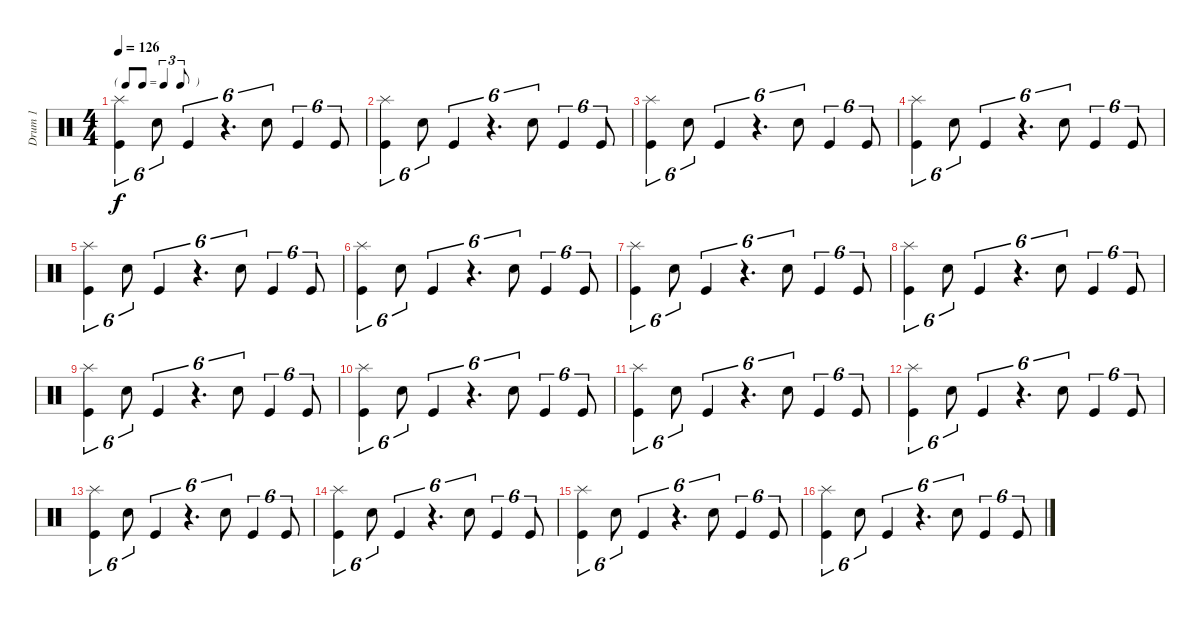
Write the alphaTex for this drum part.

\track ("Drum 1" "Drum 1") {instrument percussion}
\staff {score}
\articulation defaults
\ts (4 4)
\tf triplet8th
\tempo 126
\clef neutral
\ks c
("Kick (hit)" "Splash (hit)").4{tu (6 4) dy f} "Snare (hit) 2".8{tu (6 4)} "Kick (hit)".4{tu (6 4)} r.4{d tu (6 4)} "Snare (hit) 2".8{tu (6 4)} "Kick (hit)".4{tu (6 4)} "Kick (hit)".8{tu (6 4)} |
("Kick (hit)" "Splash (hit)").4{tu (6 4)} "Snare (hit) 2".8{tu (6 4)} "Kick (hit)".4{tu (6 4)} r.4{d tu (6 4)} "Snare (hit) 2".8{tu (6 4)} "Kick (hit)".4{tu (6 4)} "Kick (hit)".8{tu (6 4)} |
("Kick (hit)" "Splash (hit)").4{tu (6 4)} "Snare (hit) 2".8{tu (6 4)} "Kick (hit)".4{tu (6 4)} r.4{d tu (6 4)} "Snare (hit) 2".8{tu (6 4)} "Kick (hit)".4{tu (6 4)} "Kick (hit)".8{tu (6 4)} |
("Kick (hit)" "Splash (hit)").4{tu (6 4)} "Snare (hit) 2".8{tu (6 4)} "Kick (hit)".4{tu (6 4)} r.4{d tu (6 4)} "Snare (hit) 2".8{tu (6 4)} "Kick (hit)".4{tu (6 4)} "Kick (hit)".8{tu (6 4)} |
("Kick (hit)" "Splash (hit)").4{tu (6 4)} "Snare (hit) 2".8{tu (6 4)} "Kick (hit)".4{tu (6 4)} r.4{d tu (6 4)} "Snare (hit) 2".8{tu (6 4)} "Kick (hit)".4{tu (6 4)} "Kick (hit)".8{tu (6 4)} |
("Kick (hit)" "Splash (hit)").4{tu (6 4)} "Snare (hit) 2".8{tu (6 4)} "Kick (hit)".4{tu (6 4)} r.4{d tu (6 4)} "Snare (hit) 2".8{tu (6 4)} "Kick (hit)".4{tu (6 4)} "Kick (hit)".8{tu (6 4)} |
("Kick (hit)" "Splash (hit)").4{tu (6 4)} "Snare (hit) 2".8{tu (6 4)} "Kick (hit)".4{tu (6 4)} r.4{d tu (6 4)} "Snare (hit) 2".8{tu (6 4)} "Kick (hit)".4{tu (6 4)} "Kick (hit)".8{tu (6 4)} |
("Kick (hit)" "Splash (hit)").4{tu (6 4)} "Snare (hit) 2".8{tu (6 4)} "Kick (hit)".4{tu (6 4)} r.4{d tu (6 4)} "Snare (hit) 2".8{tu (6 4)} "Kick (hit)".4{tu (6 4)} "Kick (hit)".8{tu (6 4)} |
("Kick (hit)" "Splash (hit)").4{tu (6 4)} "Snare (hit) 2".8{tu (6 4)} "Kick (hit)".4{tu (6 4)} r.4{d tu (6 4)} "Snare (hit) 2".8{tu (6 4)} "Kick (hit)".4{tu (6 4)} "Kick (hit)".8{tu (6 4)} |
("Kick (hit)" "Splash (hit)").4{tu (6 4)} "Snare (hit) 2".8{tu (6 4)} "Kick (hit)".4{tu (6 4)} r.4{d tu (6 4)} "Snare (hit) 2".8{tu (6 4)} "Kick (hit)".4{tu (6 4)} "Kick (hit)".8{tu (6 4)} |
("Kick (hit)" "Splash (hit)").4{tu (6 4)} "Snare (hit) 2".8{tu (6 4)} "Kick (hit)".4{tu (6 4)} r.4{d tu (6 4)} "Snare (hit) 2".8{tu (6 4)} "Kick (hit)".4{tu (6 4)} "Kick (hit)".8{tu (6 4)} |
("Kick (hit)" "Splash (hit)").4{tu (6 4)} "Snare (hit) 2".8{tu (6 4)} "Kick (hit)".4{tu (6 4)} r.4{d tu (6 4)} "Snare (hit) 2".8{tu (6 4)} "Kick (hit)".4{tu (6 4)} "Kick (hit)".8{tu (6 4)} |
("Kick (hit)" "Splash (hit)").4{tu (6 4)} "Snare (hit) 2".8{tu (6 4)} "Kick (hit)".4{tu (6 4)} r.4{d tu (6 4)} "Snare (hit) 2".8{tu (6 4)} "Kick (hit)".4{tu (6 4)} "Kick (hit)".8{tu (6 4)} |
("Kick (hit)" "Splash (hit)").4{tu (6 4)} "Snare (hit) 2".8{tu (6 4)} "Kick (hit)".4{tu (6 4)} r.4{d tu (6 4)} "Snare (hit) 2".8{tu (6 4)} "Kick (hit)".4{tu (6 4)} "Kick (hit)".8{tu (6 4)} |
("Kick (hit)" "Splash (hit)").4{tu (6 4)} "Snare (hit) 2".8{tu (6 4)} "Kick (hit)".4{tu (6 4)} r.4{d tu (6 4)} "Snare (hit) 2".8{tu (6 4)} "Kick (hit)".4{tu (6 4)} "Kick (hit)".8{tu (6 4)} |
("Kick (hit)" "Splash (hit)").4{tu (6 4)} "Snare (hit) 2".8{tu (6 4)} "Kick (hit)".4{tu (6 4)} r.4{d tu (6 4)} "Snare (hit) 2".8{tu (6 4)} "Kick (hit)".4{tu (6 4)} "Kick (hit)".8{tu (6 4)}
